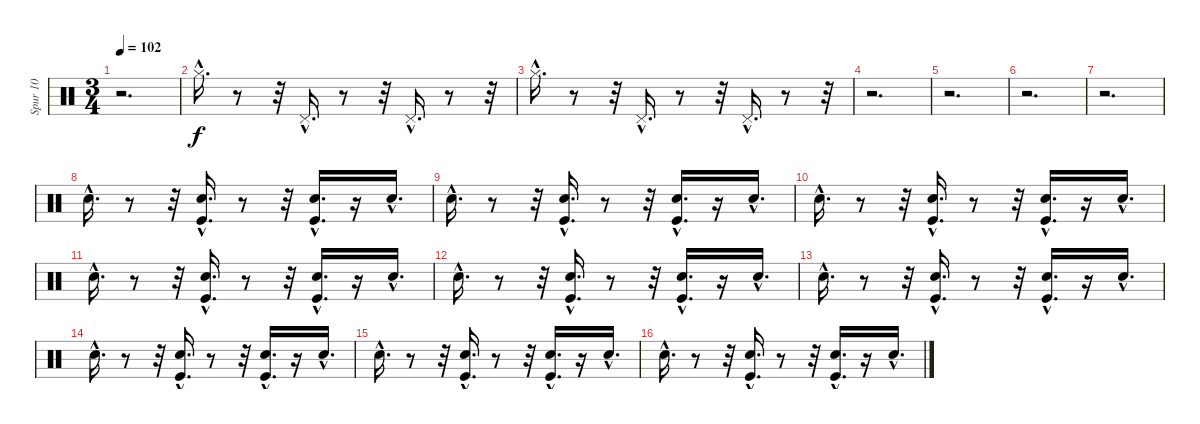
\track ("Spur 10" "Spur 10") {instrument percussion}
\staff {score}
\articulation defaults
\ts (3 4)
\tempo 102
\clef neutral
\ks c
r.2{d dy f} |
"Hi-Hat (closed)"{hac}.16{d} r.8 r.32 "Pedal Hi-Hat (hit)"{hac}.16{d} r.8 r.32 "Pedal Hi-Hat (hit)"{hac}.16{d} r.8 r.32 |
"Hi-Hat (closed)"{hac}.16{d} r.8 r.32 "Pedal Hi-Hat (hit)"{hac}.16{d} r.8 r.32 "Pedal Hi-Hat (hit)"{hac}.16{d} r.8 r.32 |
r.2{d} |
r.2{d} |
r.2{d} |
r.2{d} |
"Snare (hit) 2"{hac}.16{d} r.8 r.32 ("Kick (hit)"{hac} "Snare (hit) 2"{hac}).16{d} r.8 r.32 ("Kick (hit)"{hac} "Snare (hit) 2"{hac}).16{d} r.16 "Hand Clap (hit)"{hac}.16{d} |
"Snare (hit) 2"{hac}.16{d} r.8 r.32 ("Kick (hit)"{hac} "Snare (hit) 2"{hac}).16{d} r.8 r.32 ("Kick (hit)"{hac} "Snare (hit) 2"{hac}).16{d} r.16 "Hand Clap (hit)"{hac}.16{d} |
"Snare (hit) 2"{hac}.16{d} r.8 r.32 ("Kick (hit)"{hac} "Snare (hit) 2"{hac}).16{d} r.8 r.32 ("Kick (hit)"{hac} "Snare (hit) 2"{hac}).16{d} r.16 "Hand Clap (hit)"{hac}.16{d} |
"Snare (hit) 2"{hac}.16{d} r.8 r.32 ("Kick (hit)"{hac} "Snare (hit) 2"{hac}).16{d} r.8 r.32 ("Kick (hit)"{hac} "Snare (hit) 2"{hac}).16{d} r.16 "Hand Clap (hit)"{hac}.16{d} |
"Snare (hit) 2"{hac}.16{d} r.8 r.32 ("Snare (hit) 2"{hac} "Kick (hit)"{hac}).16{d} r.8 r.32 ("Snare (hit) 2"{hac} "Kick (hit)"{hac}).16{d} r.16 "Hand Clap (hit)"{hac}.16{d} |
"Snare (hit) 2"{hac}.16{d} r.8 r.32 ("Snare (hit) 2"{hac} "Kick (hit)"{hac}).16{d} r.8 r.32 ("Snare (hit) 2"{hac} "Kick (hit)"{hac}).16{d} r.16 "Hand Clap (hit)"{hac}.16{d} |
"Snare (hit) 2"{hac}.16{d} r.8 r.32 ("Snare (hit) 2"{hac} "Kick (hit)"{hac}).16{d} r.8 r.32 ("Snare (hit) 2"{hac} "Kick (hit)"{hac}).16{d} r.16 "Hand Clap (hit)"{hac}.16{d} |
"Snare (hit) 2"{hac}.16{d} r.8 r.32 ("Snare (hit) 2"{hac} "Kick (hit)"{hac}).16{d} r.8 r.32 ("Snare (hit) 2"{hac} "Kick (hit)"{hac}).16{d} r.16 "Hand Clap (hit)"{hac}.16{d} |
"Snare (hit) 2"{hac}.16{d} r.8 r.32 ("Snare (hit) 2"{hac} "Kick (hit)"{hac}).16{d} r.8 r.32 ("Snare (hit) 2"{hac} "Kick (hit)"{hac}).16{d} r.16 "Hand Clap (hit)"{hac}.16{d}
